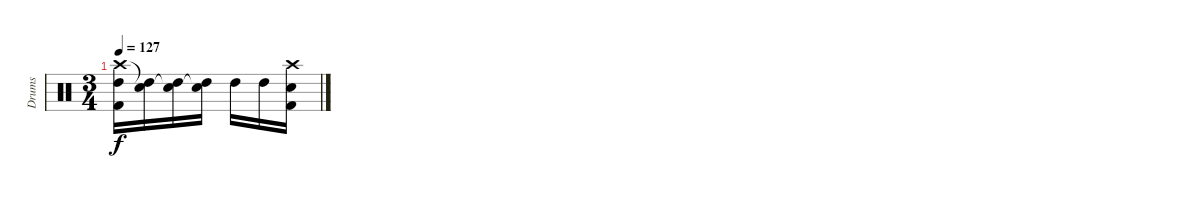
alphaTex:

\track ("Drums" "Drums") {instrument percussion}
\staff {score}
\articulation defaults
\ts (3 4)
\tempo 127
\clef neutral
\ks c
("Crash high (hit)" "High Tom (hit)" "Kick (hit) 2").16{dy f} ("Snare (hit)"{t} "High Tom (hit)").16 ("Snare (hit)"{t} "High Tom (hit)").16 ("Snare (hit)"{t} "High Tom (hit)").16 "High Tom (hit)".16 "High Tom (hit)".16 ("Crash high (hit)" "Electric Snare (hit)" "Kick (hit) 2").16
